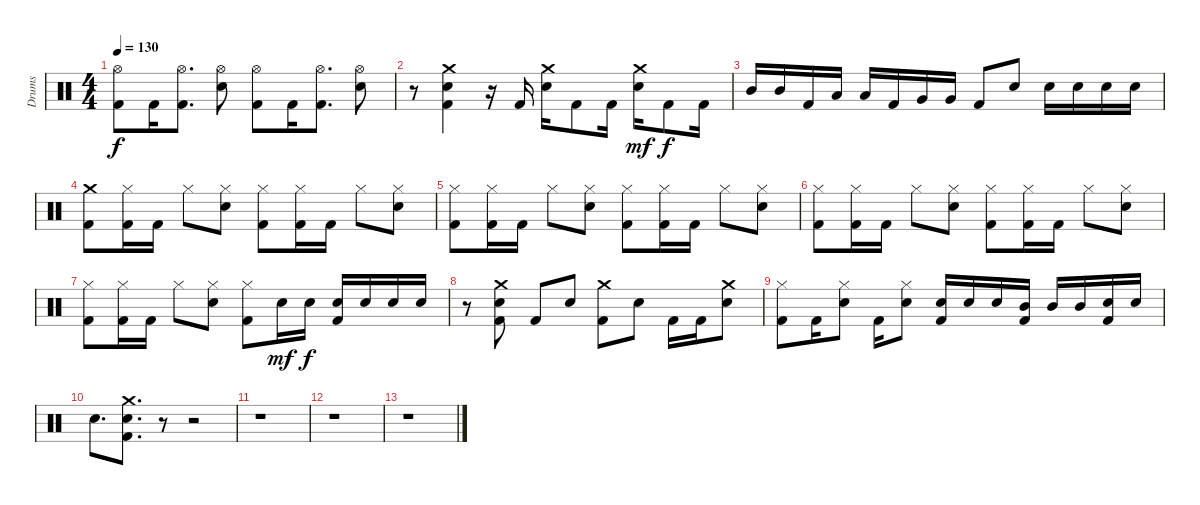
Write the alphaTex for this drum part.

\track ("Drums" "Drums") {instrument percussion}
\staff {score}
\articulation defaults
\ts (4 4)
\tempo 130
\clef neutral
\ks c
("Hi-Hat (open)" "Kick (hit) 2").8{dy f} "Kick (hit) 2".16 ("Hi-Hat (open)" "Kick (hit) 2").8{d} ("Hi-Hat (open)" "Electric Snare (hit)").8 ("Hi-Hat (open)" "Kick (hit) 2").8 "Kick (hit) 2".16 ("Hi-Hat (open)" "Kick (hit) 2").8{d} ("Hi-Hat (open)" "Electric Snare (hit)").8 |
r.8 ("Crash medium (hit)" "Electric Snare (hit)" "Kick (hit) 2").4 r.16 "Kick (hit) 2".16 ("Crash medium (hit)" "Electric Snare (hit)").16 "Kick (hit) 2".8 "Kick (hit) 2".16 ("Crash medium (hit)" "Electric Snare (hit)").16{dy mf} "Kick (hit) 2".8{dy f} "Kick (hit) 2".16 |
"Mid Tom (hit)".16 "Mid Tom (hit)".16 "Kick (hit) 2".16 "Low Tom (hit)".16 "Low Tom (hit)".16 "Kick (hit) 2".16 "Very Low Tom (hit)".16 "Very Low Tom (hit)".16 "Kick (hit) 2".8 "Electric Snare (hit)".8 "Electric Snare (hit)".16 "Electric Snare (hit)".16 "Electric Snare (hit)".16 "Electric Snare (hit)".16 |
("Crash medium (hit)" "Kick (hit) 2").8 ("Hi-Hat (closed)" "Kick (hit) 2").16 "Kick (hit) 2".16 "Hi-Hat (closed)".8 ("Hi-Hat (closed)" "Electric Snare (hit)").8 ("Hi-Hat (closed)" "Kick (hit) 2").8 ("Hi-Hat (closed)" "Kick (hit) 2").16 "Kick (hit) 2".16 "Hi-Hat (closed)".8 ("Hi-Hat (closed)" "Electric Snare (hit)").8 |
("Hi-Hat (closed)" "Kick (hit) 2").8 ("Hi-Hat (closed)" "Kick (hit) 2").16 "Kick (hit) 2".16 "Hi-Hat (closed)".8 ("Hi-Hat (closed)" "Electric Snare (hit)").8 ("Hi-Hat (closed)" "Kick (hit) 2").8 ("Hi-Hat (closed)" "Kick (hit) 2").16 "Kick (hit) 2".16 "Hi-Hat (closed)".8 ("Hi-Hat (closed)" "Electric Snare (hit)").8 |
("Hi-Hat (closed)" "Kick (hit) 2").8 ("Hi-Hat (closed)" "Kick (hit) 2").16 "Kick (hit) 2".16 "Hi-Hat (closed)".8 ("Hi-Hat (closed)" "Electric Snare (hit)").8 ("Hi-Hat (closed)" "Kick (hit) 2").8 ("Hi-Hat (closed)" "Kick (hit) 2").16 "Kick (hit) 2".16 "Hi-Hat (closed)".8 ("Hi-Hat (closed)" "Electric Snare (hit)").8 |
("Hi-Hat (closed)" "Kick (hit) 2").8 ("Hi-Hat (closed)" "Kick (hit) 2").16 "Kick (hit) 2".16 "Hi-Hat (closed)".8 ("Hi-Hat (closed)" "Electric Snare (hit)").8 ("Hi-Hat (closed)" "Kick (hit) 2").8 "Electric Snare (hit)".16{dy mf} "Electric Snare (hit)".16{dy f} ("Electric Snare (hit)" "Kick (hit) 2").16 "Electric Snare (hit)".16 "Electric Snare (hit)".16 "Electric Snare (hit)".16 |
r.8 ("Crash medium (hit)" "Electric Snare (hit)" "Kick (hit) 2").8 "Kick (hit) 2".8 "Electric Snare (hit)".8 ("Crash medium (hit)" "Kick (hit) 2").8 "Electric Snare (hit)".8 "Kick (hit) 2".16 "Kick (hit) 2".16 ("Crash medium (hit)" "Electric Snare (hit)").8 |
("Hi-Hat (closed)" "Kick (hit) 2").8 "Kick (hit) 2".16 ("Hi-Hat (closed)" "Electric Snare (hit)").8 "Kick (hit) 2".16 ("Hi-Hat (closed)" "Electric Snare (hit)").8 ("Electric Snare (hit)" "Kick (hit) 2").16 "Electric Snare (hit)".16 "Electric Snare (hit)".16 ("Mid Tom (hit)" "Kick (hit) 2").16 "Mid Tom (hit)".16 "Mid Tom (hit)".16 ("Electric Snare (hit)" "Kick (hit) 2").16 "Electric Snare (hit)".16 |
"Electric Snare (hit)".8{d} ("Crash medium (hit)" "Electric Snare (hit)" "Kick (hit) 2").8{d} r.8 r.2 |
r.1 |
r.1 |
r.1
